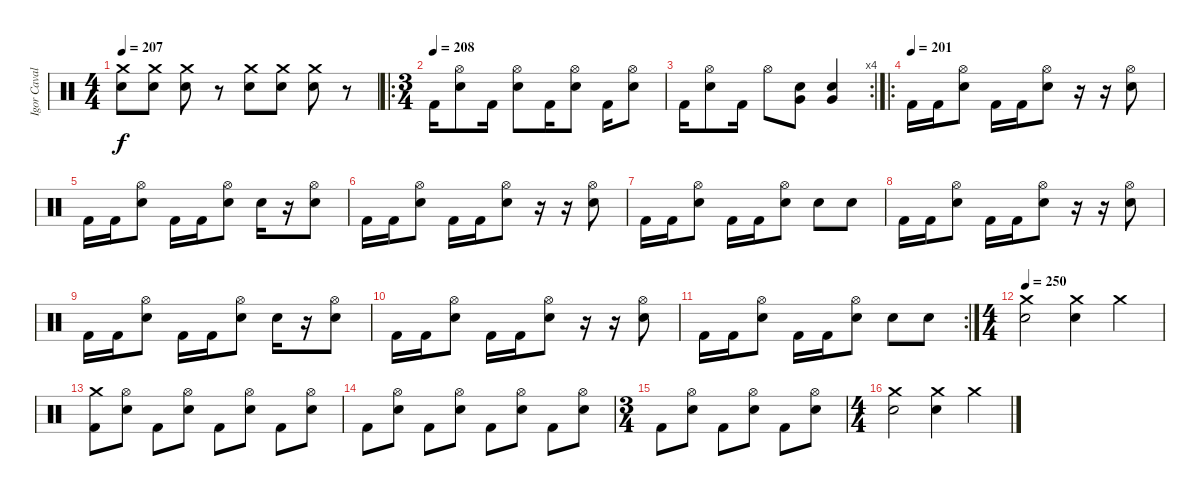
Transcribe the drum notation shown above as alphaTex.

\track ("Igor Cavalera" "Igor Caval") {solo instrument percussion}
\staff {score}
\articulation defaults
\ts (4 4)
\tempo 207
\clef neutral
\ks c
("Electric Snare (hit)" "Crash medium (hit)").8{dy f} ("Electric Snare (hit)" "Crash medium (hit)").8 ("Electric Snare (hit)" "Crash medium (hit)").8 r.8 ("Electric Snare (hit)" "Crash medium (hit)").8 ("Electric Snare (hit)" "Crash medium (hit)").8 ("Electric Snare (hit)" "Crash medium (hit)").8 r.8 |
\ro
\ts (3 4)
\tempo (208)
"Kick (hit) 2".16 ("Electric Snare (hit)" "Hi-Hat (open)").8 "Kick (hit) 2".16 ("Electric Snare (hit)" "Hi-Hat (open)").8 "Kick (hit) 2".16 ("Electric Snare (hit)" "Hi-Hat (open)").8 "Kick (hit) 2".16 ("Electric Snare (hit)" "Hi-Hat (open)").8 |
\rc 4 "Kick (hit) 2".16
("Electric Snare (hit)" "Hi-Hat (open)").8 "Kick (hit) 2".16 "Hi-Hat (open)".8 ("Electric Snare (hit)" "Very Low Tom (hit)").8 ("Electric Snare (hit)" "Very Low Tom (hit)").4 |
\ro
\tempo (201)
"Kick (hit) 2".16 "Kick (hit) 2".16 ("Electric Snare (hit)" "Hi-Hat (open)").8 "Kick (hit) 2".16 "Kick (hit) 2".16 ("Electric Snare (hit)" "Hi-Hat (open)").8 r.16 r.16 ("Electric Snare (hit)" "Hi-Hat (open)").8 |
"Kick (hit) 2".16 "Kick (hit) 2".16 ("Electric Snare (hit)" "Hi-Hat (open)").8 "Kick (hit) 2".16 "Kick (hit) 2".16 ("Electric Snare (hit)" "Hi-Hat (open)").8 "Electric Snare (hit)".16 r.16 ("Electric Snare (hit)" "Hi-Hat (open)").8 |
"Kick (hit) 2".16 "Kick (hit) 2".16 ("Electric Snare (hit)" "Hi-Hat (open)").8 "Kick (hit) 2".16 "Kick (hit) 2".16 ("Electric Snare (hit)" "Hi-Hat (open)").8 r.16 r.16 ("Electric Snare (hit)" "Hi-Hat (open)").8 |
"Kick (hit) 2".16 "Kick (hit) 2".16 ("Electric Snare (hit)" "Hi-Hat (open)").8 "Kick (hit) 2".16 "Kick (hit) 2".16 ("Electric Snare (hit)" "Hi-Hat (open)").8 "Electric Snare (hit)".8 "Electric Snare (hit)".8 |
"Kick (hit) 2".16 "Kick (hit) 2".16 ("Electric Snare (hit)" "Hi-Hat (open)").8 "Kick (hit) 2".16 "Kick (hit) 2".16 ("Electric Snare (hit)" "Hi-Hat (open)").8 r.16 r.16 ("Electric Snare (hit)" "Hi-Hat (open)").8 |
"Kick (hit) 2".16 "Kick (hit) 2".16 ("Electric Snare (hit)" "Hi-Hat (open)").8 "Kick (hit) 2".16 "Kick (hit) 2".16 ("Electric Snare (hit)" "Hi-Hat (open)").8 "Electric Snare (hit)".16 r.16 ("Electric Snare (hit)" "Hi-Hat (open)").8 |
"Kick (hit) 2".16 "Kick (hit) 2".16 ("Electric Snare (hit)" "Hi-Hat (open)").8 "Kick (hit) 2".16 "Kick (hit) 2".16 ("Electric Snare (hit)" "Hi-Hat (open)").8 r.16 r.16 ("Electric Snare (hit)" "Hi-Hat (open)").8 |
\rc 2 "Kick (hit) 2".16 "Kick (hit) 2".16
("Electric Snare (hit)" "Hi-Hat (open)").8 "Kick (hit) 2".16 "Kick (hit) 2".16 ("Electric Snare (hit)" "Hi-Hat (open)").8 "Electric Snare (hit)".8 "Electric Snare (hit)".8 |
\ts (4 4)
\tempo 250
("Crash medium (hit)" "Electric Snare (hit)").2 ("Crash medium (hit)" "Electric Snare (hit)").4 "Crash medium (hit)".4 |
("Kick (hit) 2" "Crash medium (hit)").8 ("Electric Snare (hit)" "Hi-Hat (open)").8 "Kick (hit) 2".8 ("Electric Snare (hit)" "Hi-Hat (open)").8 "Kick (hit) 2".8 ("Electric Snare (hit)" "Hi-Hat (open)").8 "Kick (hit) 2".8 ("Electric Snare (hit)" "Hi-Hat (open)").8 |
"Kick (hit) 2".8 ("Electric Snare (hit)" "Hi-Hat (open)").8 "Kick (hit) 2".8 ("Electric Snare (hit)" "Hi-Hat (open)").8 "Kick (hit) 2".8 ("Electric Snare (hit)" "Hi-Hat (open)").8 "Kick (hit) 2".8 ("Electric Snare (hit)" "Hi-Hat (open)").8 |
\ts (3 4)
"Kick (hit) 2".8 ("Electric Snare (hit)" "Hi-Hat (open)").8 "Kick (hit) 2".8 ("Electric Snare (hit)" "Hi-Hat (open)").8 "Kick (hit) 2".8 ("Electric Snare (hit)" "Hi-Hat (open)").8 |
\ts (4 4)
("Crash medium (hit)" "Electric Snare (hit)").2 ("Crash medium (hit)" "Electric Snare (hit)").4 "Crash medium (hit)".4
